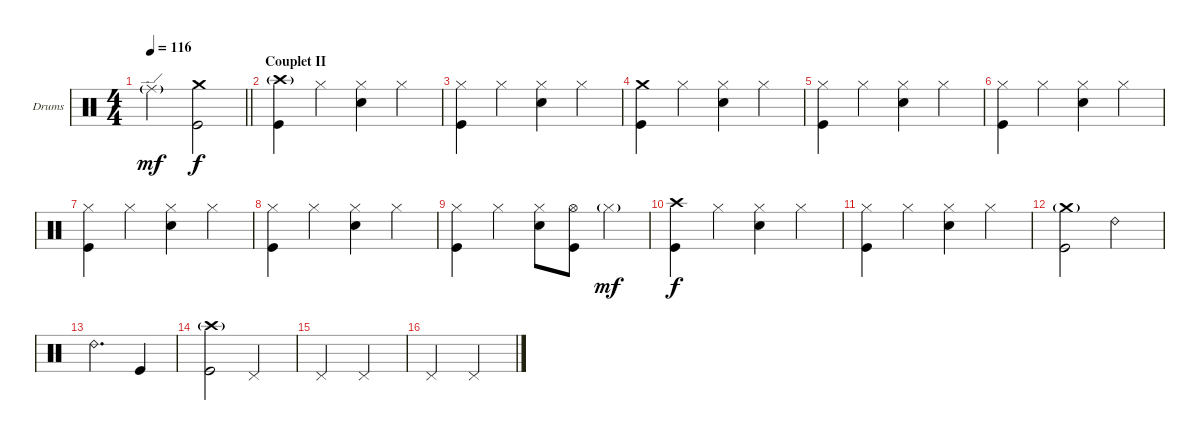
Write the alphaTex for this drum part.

\bracketExtendMode groupsimilarinstruments
\firstSystemTrackNameOrientation horizontal
\otherSystemsTrackNameOrientation horizontal
\track ("Nick Mason" "Drums") {multiBarRest instrument percussion}
\staff {score}
\articulation defaults
\ts (4 4)
\tempo 116
\clef neutral
\barLineRight lightlight
\ks c "Ride (edge)"{g}.2{dy mf}
("Crash medium (hit)" "Kick (hit)").2{dy f} |
\section ("" "Couplet II")
("Crash high (hit)"{g} "Kick (hit)").4 "Hi-Hat (closed)".4 ("Hi-Hat (closed)" "Snare (hit) 2").4 "Hi-Hat (closed)".4 |
("Hi-Hat (closed)" "Kick (hit)").4 "Hi-Hat (closed)".4 ("Hi-Hat (closed)" "Snare (hit) 2").4 "Hi-Hat (closed)".4 |
("Crash medium (hit)" "Kick (hit)").4 "Hi-Hat (closed)".4 ("Hi-Hat (closed)" "Snare (hit) 2").4 "Hi-Hat (closed)".4 |
("Hi-Hat (closed)" "Kick (hit)").4 "Hi-Hat (closed)".4 ("Hi-Hat (closed)" "Snare (hit) 2").4 "Hi-Hat (closed)".4 |
("Hi-Hat (closed)" "Kick (hit)").4 "Hi-Hat (closed)".4 ("Hi-Hat (closed)" "Snare (hit) 2").4 "Hi-Hat (closed)".4 |
("Hi-Hat (closed)" "Kick (hit)").4 "Hi-Hat (closed)".4 ("Hi-Hat (closed)" "Snare (hit) 2").4 "Hi-Hat (closed)".4 |
("Hi-Hat (closed)" "Kick (hit)").4 "Hi-Hat (closed)".4 ("Hi-Hat (closed)" "Snare (hit) 2").4 "Hi-Hat (closed)".4 |
("Hi-Hat (closed)" "Kick (hit)").4 "Hi-Hat (closed)".4 ("Hi-Hat (closed)" "Snare (hit) 2").8 ("Hi-Hat (open)" "Kick (hit)").8 "Hi-Hat (closed)"{g}.4{dy mf} |
("Crash high (hit)" "Kick (hit)").4{dy f} "Hi-Hat (closed)".4 ("Hi-Hat (closed)" "Snare (hit) 2").4 "Hi-Hat (closed)".4 |
("Hi-Hat (closed)" "Kick (hit)").4 "Hi-Hat (closed)".4 ("Hi-Hat (closed)" "Snare (hit) 2").4 "Hi-Hat (closed)".4 |
("Crash medium (hit)"{g} "Kick (hit)").2 "Ride (bell) 2".2 |
"Ride (bell) 2".2{d} "Kick (hit)".4 |
("Crash high (hit)"{g} "Kick (hit)").2 "Pedal Hi-Hat (hit)".2 |
"Pedal Hi-Hat (hit)".2 "Pedal Hi-Hat (hit)".2 |
"Pedal Hi-Hat (hit)".2 "Pedal Hi-Hat (hit)".2
